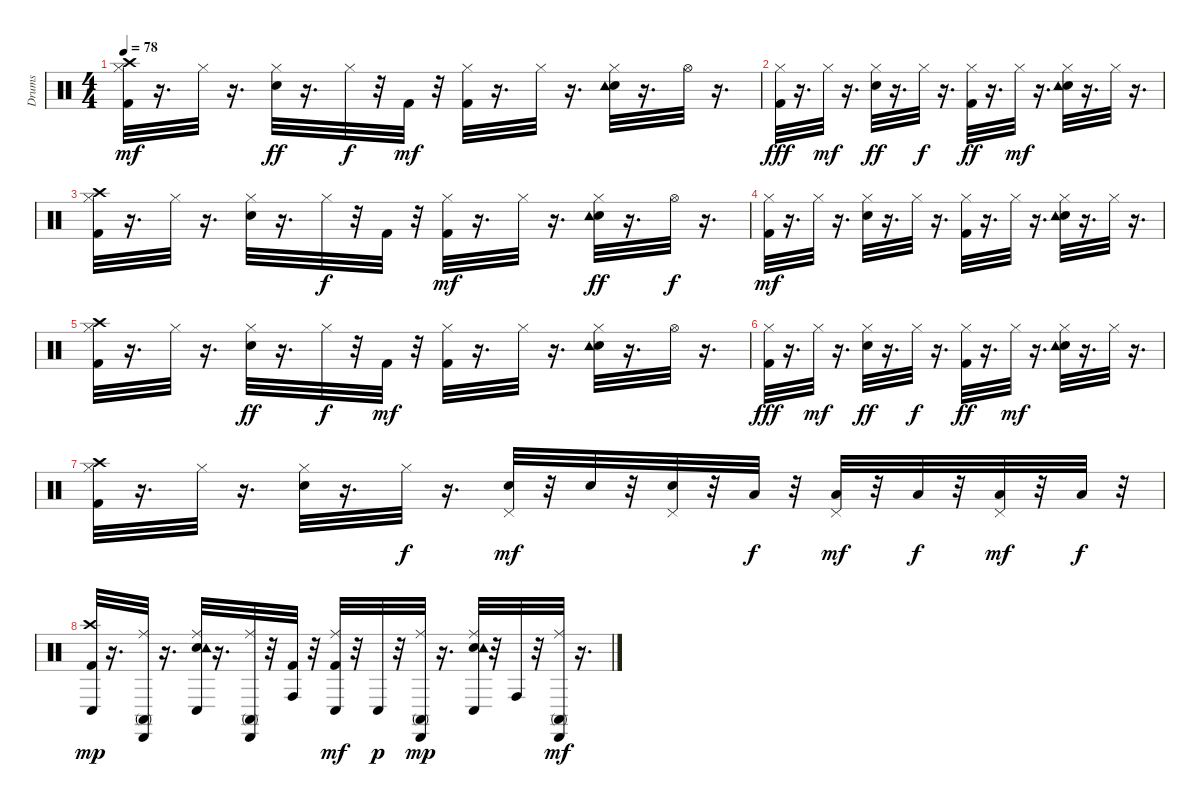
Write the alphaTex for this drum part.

\track ("Drums   " "Drums   ") {instrument percussion}
\staff {score}
\articulation defaults
\ts (4 4)
\tempo 78
\clef neutral
\ks c
("Kick (hit) 2" "Hi-Hat (closed)" "Crash high (hit)").32{dy mf} r.16{d} "Hi-Hat (closed)".32 r.16{d} ("Hi-Hat (closed)" "Snare (hit) 2").32{dy ff} r.16{d} "Hi-Hat (closed)".32{dy f} r.32 "Kick (hit) 2".32{dy mf} r.32 ("Kick (hit) 2" "Hi-Hat (closed)").32 r.16{d} "Hi-Hat (closed)".32 r.16{d} ("Snare (hit) 2" "Tambourine (hit)" "Hi-Hat (closed)").32 r.16{d} "Hi-Hat (open)".32 r.16{d} |
("Hi-Hat (closed)" "Kick (hit) 2").32{dy fff} r.16{d} "Hi-Hat (closed)".32{dy mf} r.16{d} ("Snare (hit) 2" "Hi-Hat (closed)").32{dy ff} r.16{d} "Hi-Hat (closed)".32{dy f} r.16{d} ("Hi-Hat (closed)" "Kick (hit) 2").32{dy ff} r.16{d} "Hi-Hat (closed)".32{dy mf} r.16{d} ("Snare (hit) 2" "Tambourine (hit)" "Hi-Hat (closed)").32 r.16{d} "Hi-Hat (closed)".32 r.16{d} |
("Hi-Hat (closed)" "Kick (hit) 2" "Crash high (hit)").32 r.16{d} "Hi-Hat (closed)".32 r.16{d} ("Snare (hit) 2" "Hi-Hat (closed)").32 r.16{d} "Hi-Hat (closed)".32{dy f} r.32 "Kick (hit) 2".32 r.32 ("Kick (hit) 2" "Hi-Hat (closed)").32{dy mf} r.16{d} "Hi-Hat (closed)".32 r.16{d} ("Hi-Hat (closed)" "Snare (hit) 2" "Tambourine (hit)").32{dy ff} r.16{d} "Hi-Hat (open)".32{dy f} r.16{d} |
("Kick (hit) 2" "Hi-Hat (closed)").32{dy mf} r.16{d} "Hi-Hat (closed)".32 r.16{d} ("Snare (hit) 2" "Hi-Hat (closed)").32 r.16{d} "Hi-Hat (closed)".32 r.16{d} ("Kick (hit) 2" "Hi-Hat (closed)").32 r.16{d} "Hi-Hat (closed)".32 r.16{d} ("Snare (hit) 2" "Tambourine (hit)" "Hi-Hat (closed)").32 r.16{d} "Hi-Hat (closed)".32 r.16{d} |
("Kick (hit) 2" "Hi-Hat (closed)" "Crash high (hit)").32 r.16{d} "Hi-Hat (closed)".32 r.16{d} ("Hi-Hat (closed)" "Snare (hit) 2").32{dy ff} r.16{d} "Hi-Hat (closed)".32{dy f} r.32 "Kick (hit) 2".32{dy mf} r.32 ("Kick (hit) 2" "Hi-Hat (closed)").32 r.16{d} "Hi-Hat (closed)".32 r.16{d} ("Snare (hit) 2" "Tambourine (hit)" "Hi-Hat (closed)").32 r.16{d} "Hi-Hat (open)".32 r.16{d} |
("Hi-Hat (closed)" "Kick (hit) 2").32{dy fff} r.16{d} "Hi-Hat (closed)".32{dy mf} r.16{d} ("Snare (hit) 2" "Hi-Hat (closed)").32{dy ff} r.16{d} "Hi-Hat (closed)".32{dy f} r.16{d} ("Hi-Hat (closed)" "Kick (hit) 2").32{dy ff} r.16{d} "Hi-Hat (closed)".32{dy mf} r.16{d} ("Snare (hit) 2" "Tambourine (hit)" "Hi-Hat (closed)").32 r.16{d} "Hi-Hat (closed)".32 r.16{d} |
("Hi-Hat (closed)" "Kick (hit) 2" "Crash high (hit)").32 r.16{d} "Hi-Hat (closed)".32 r.16{d} ("Snare (hit) 2" "Hi-Hat (closed)").32 r.16{d} "Hi-Hat (closed)".32{dy f} r.16{d} ("Snare (hit) 2" "Pedal Hi-Hat (hit)").32{dy mf} r.32 "Snare (hit) 2".32 r.32 ("Pedal Hi-Hat (hit)" "Snare (hit) 2").32 r.32 "Low Tom (hit)".32{dy f} r.32 ("Low Tom (hit)" "Pedal Hi-Hat (hit)").32{dy mf} r.32 "Low Tom (hit)".32{dy f} r.32 ("Low Floor Tom (hit)" "Pedal Hi-Hat (hit)").32{dy mf} r.32 "Low Floor Tom (hit)".32{dy f} r.32 |
("Kick (hit) 2" "Crash high (hit)" "Conga low (hit)").32{dy mp} r.16{d} ("Ride (middle)" "Conga high (mute)" "Cabasa (hit)").32 r.16{d} ("Snare (hit) 2" "Ride (middle)" "Tambourine (hit)" "Conga low (hit)").32 r.16{d} ("Ride (middle)" "Conga high (mute)" "Cabasa (hit)").32 r.32 ("Kick (hit) 2" "Conga high (hit)").32 r.32 ("Conga low (hit)" "Kick (hit) 2" "Ride (middle)").32{dy mf} r.32 "Conga low (hit)".32{dy p} r.32 ("Ride (middle)" "Conga high (mute)" "Cabasa (hit)").32{dy mp} r.16{d} ("Snare (hit) 2" "Tambourine (hit)" "Ride (middle)" "Conga low (hit)").32 r.32 "Conga high (hit)".32 r.32 ("Conga high (mute)" "Ride (middle)" "Cabasa (hit)").32{dy mf} r.16{d}
